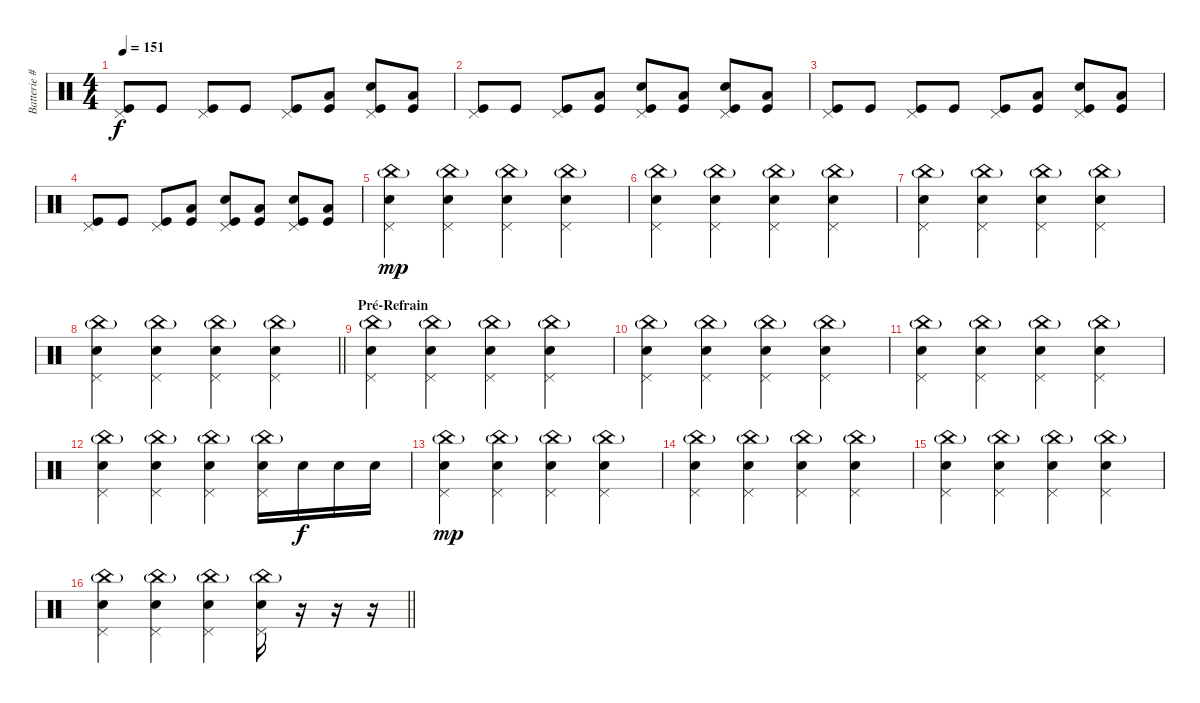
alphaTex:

\track ("Batterie # S.Hewitt" "Batterie #") {instrument percussion}
\staff {score}
\articulation defaults
\ts (4 4)
\tempo 151
\clef neutral
\ks c
("Kick (hit)" "Pedal Hi-Hat (hit)").8{dy f} "Kick (hit)".8 ("Kick (hit)" "Pedal Hi-Hat (hit)").8 "Kick (hit)".8 ("Kick (hit)" "Pedal Hi-Hat (hit)").8 ("Kick (hit)" "Low Tom (hit)").8 ("Kick (hit)" "Pedal Hi-Hat (hit)" "Electric Snare (hit)").8 ("Kick (hit)" "Low Tom (hit)").8 |
("Kick (hit)" "Pedal Hi-Hat (hit)").8 "Kick (hit)".8 ("Kick (hit)" "Pedal Hi-Hat (hit)").8 ("Kick (hit)" "Low Tom (hit)").8 ("Kick (hit)" "Pedal Hi-Hat (hit)" "Electric Snare (hit)").8 ("Kick (hit)" "Low Tom (hit)").8 ("Kick (hit)" "Pedal Hi-Hat (hit)" "Electric Snare (hit)").8 ("Kick (hit)" "Low Tom (hit)").8 |
("Kick (hit)" "Pedal Hi-Hat (hit)").8 "Kick (hit)".8 ("Kick (hit)" "Pedal Hi-Hat (hit)").8 "Kick (hit)".8 ("Kick (hit)" "Pedal Hi-Hat (hit)").8 ("Kick (hit)" "Low Tom (hit)").8 ("Kick (hit)" "Pedal Hi-Hat (hit)" "Electric Snare (hit)").8 ("Kick (hit)" "Low Tom (hit)").8 |
("Kick (hit)" "Pedal Hi-Hat (hit)").8 "Kick (hit)".8 ("Kick (hit)" "Pedal Hi-Hat (hit)").8 ("Kick (hit)" "Low Tom (hit)").8 ("Kick (hit)" "Pedal Hi-Hat (hit)" "Electric Snare (hit)").8 ("Kick (hit)" "Low Tom (hit)").8 ("Kick (hit)" "Pedal Hi-Hat (hit)" "Electric Snare (hit)").8 ("Kick (hit)" "Low Tom (hit)").8 |
("China (hit)"{g} "Electric Snare (hit)" "Pedal Hi-Hat (hit)").4{dy mp} ("China (hit)"{g} "Electric Snare (hit)" "Pedal Hi-Hat (hit)").4 ("China (hit)"{g} "Electric Snare (hit)" "Pedal Hi-Hat (hit)").4 ("China (hit)"{g} "Electric Snare (hit)" "Pedal Hi-Hat (hit)").4 |
("China (hit)"{g} "Electric Snare (hit)" "Pedal Hi-Hat (hit)").4 ("China (hit)"{g} "Electric Snare (hit)" "Pedal Hi-Hat (hit)").4 ("China (hit)"{g} "Electric Snare (hit)" "Pedal Hi-Hat (hit)").4 ("China (hit)"{g} "Electric Snare (hit)" "Pedal Hi-Hat (hit)").4 |
("China (hit)"{g} "Electric Snare (hit)" "Pedal Hi-Hat (hit)").4 ("China (hit)"{g} "Electric Snare (hit)" "Pedal Hi-Hat (hit)").4 ("China (hit)"{g} "Electric Snare (hit)" "Pedal Hi-Hat (hit)").4 ("China (hit)"{g} "Electric Snare (hit)" "Pedal Hi-Hat (hit)").4 |
\barLineRight lightlight
("China (hit)"{g} "Electric Snare (hit)" "Pedal Hi-Hat (hit)").4 ("China (hit)"{g} "Electric Snare (hit)" "Pedal Hi-Hat (hit)").4 ("China (hit)"{g} "Electric Snare (hit)" "Pedal Hi-Hat (hit)").4 ("China (hit)"{g} "Electric Snare (hit)" "Pedal Hi-Hat (hit)").4 |
\section ("" "Pré-Refrain")
("China (hit)"{g} "Electric Snare (hit)" "Pedal Hi-Hat (hit)").4 ("China (hit)"{g} "Electric Snare (hit)" "Pedal Hi-Hat (hit)").4 ("China (hit)"{g} "Electric Snare (hit)" "Pedal Hi-Hat (hit)").4 ("China (hit)"{g} "Electric Snare (hit)" "Pedal Hi-Hat (hit)").4 |
("China (hit)"{g} "Electric Snare (hit)" "Pedal Hi-Hat (hit)").4 ("China (hit)"{g} "Electric Snare (hit)" "Pedal Hi-Hat (hit)").4 ("China (hit)"{g} "Electric Snare (hit)" "Pedal Hi-Hat (hit)").4 ("China (hit)"{g} "Electric Snare (hit)" "Pedal Hi-Hat (hit)").4 |
("China (hit)"{g} "Electric Snare (hit)" "Pedal Hi-Hat (hit)").4 ("China (hit)"{g} "Electric Snare (hit)" "Pedal Hi-Hat (hit)").4 ("China (hit)"{g} "Electric Snare (hit)" "Pedal Hi-Hat (hit)").4 ("China (hit)"{g} "Electric Snare (hit)" "Pedal Hi-Hat (hit)").4 |
("China (hit)"{g} "Electric Snare (hit)" "Pedal Hi-Hat (hit)").4 ("China (hit)"{g} "Electric Snare (hit)" "Pedal Hi-Hat (hit)").4 ("China (hit)"{g} "Electric Snare (hit)" "Pedal Hi-Hat (hit)").4 ("China (hit)"{g} "Electric Snare (hit)" "Pedal Hi-Hat (hit)").16 "Electric Snare (hit)".16{dy f} "Electric Snare (hit)".16 "Electric Snare (hit)".16 |
("China (hit)"{g} "Electric Snare (hit)" "Pedal Hi-Hat (hit)").4{dy mp} ("China (hit)"{g} "Electric Snare (hit)" "Pedal Hi-Hat (hit)").4 ("China (hit)"{g} "Electric Snare (hit)" "Pedal Hi-Hat (hit)").4 ("China (hit)"{g} "Electric Snare (hit)" "Pedal Hi-Hat (hit)").4 |
("China (hit)"{g} "Electric Snare (hit)" "Pedal Hi-Hat (hit)").4 ("China (hit)"{g} "Electric Snare (hit)" "Pedal Hi-Hat (hit)").4 ("China (hit)"{g} "Electric Snare (hit)" "Pedal Hi-Hat (hit)").4 ("China (hit)"{g} "Electric Snare (hit)" "Pedal Hi-Hat (hit)").4 |
("China (hit)"{g} "Electric Snare (hit)" "Pedal Hi-Hat (hit)").4 ("China (hit)"{g} "Electric Snare (hit)" "Pedal Hi-Hat (hit)").4 ("China (hit)"{g} "Electric Snare (hit)" "Pedal Hi-Hat (hit)").4 ("China (hit)"{g} "Electric Snare (hit)" "Pedal Hi-Hat (hit)").4 |
\barLineRight lightlight
("China (hit)"{g} "Electric Snare (hit)" "Pedal Hi-Hat (hit)").4 ("China (hit)"{g} "Electric Snare (hit)" "Pedal Hi-Hat (hit)").4 ("China (hit)"{g} "Electric Snare (hit)" "Pedal Hi-Hat (hit)").4 ("China (hit)"{g} "Electric Snare (hit)" "Pedal Hi-Hat (hit)").16 r.16 r.16 r.16
